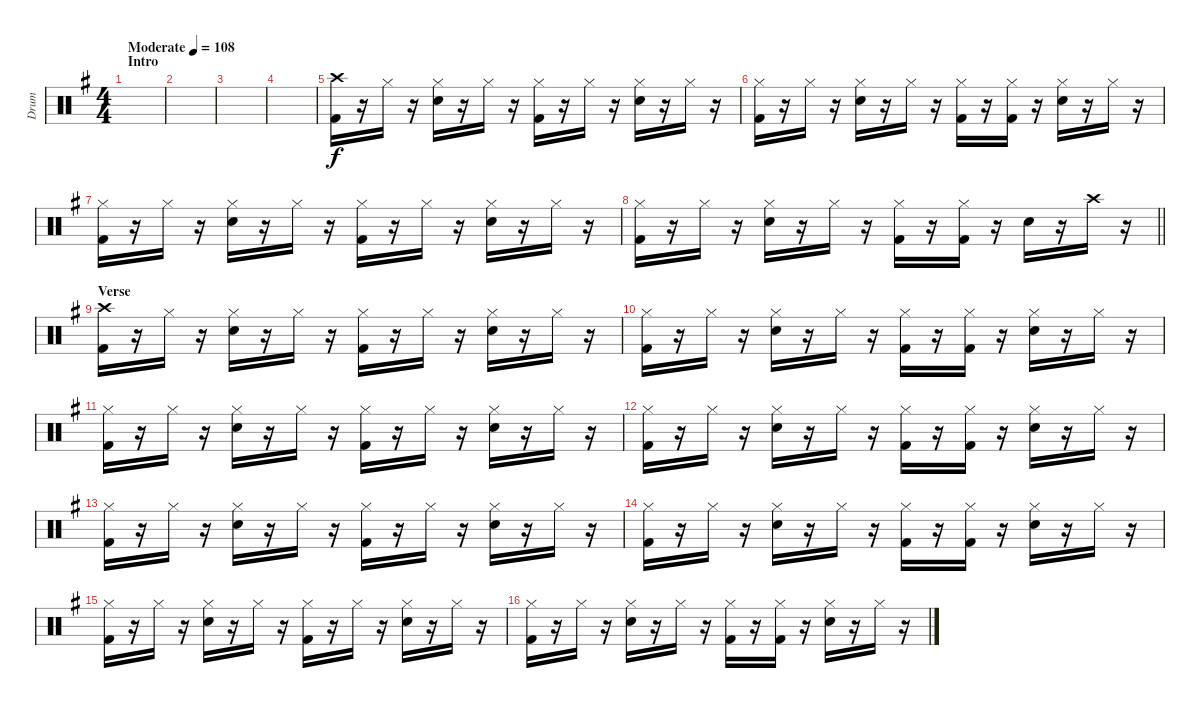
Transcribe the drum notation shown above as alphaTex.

\track ("Drum" "Drum") {instrument percussion}
\staff {score}
\articulation defaults
\ts (4 4)
\section ("" "Intro")
\tempo (108 "Moderate")
\clef neutral
\ks g
|
|
|
|
("Crash high (hit)" "Kick (hit) 2").16 r.16 "Hi-Hat (closed)".16 r.16 ("Hi-Hat (closed)" "Electric Snare (hit)").16 r.16 "Hi-Hat (closed)".16 r.16 ("Hi-Hat (closed)" "Kick (hit) 2").16 r.16 "Hi-Hat (closed)".16 r.16 ("Hi-Hat (closed)" "Electric Snare (hit)").16 r.16 "Hi-Hat (closed)".16 r.16 |
("Hi-Hat (closed)" "Kick (hit) 2").16 r.16 "Hi-Hat (closed)".16 r.16 ("Hi-Hat (closed)" "Electric Snare (hit)").16 r.16 "Hi-Hat (closed)".16 r.16 ("Hi-Hat (closed)" "Kick (hit) 2").16 r.16 ("Hi-Hat (closed)" "Kick (hit) 2").16 r.16 ("Hi-Hat (closed)" "Electric Snare (hit)").16 r.16 "Hi-Hat (closed)".16 r.16 |
("Hi-Hat (closed)" "Kick (hit) 2").16 r.16 "Hi-Hat (closed)".16 r.16 ("Hi-Hat (closed)" "Electric Snare (hit)").16 r.16 "Hi-Hat (closed)".16 r.16 ("Hi-Hat (closed)" "Kick (hit) 2").16 r.16 "Hi-Hat (closed)".16 r.16 ("Hi-Hat (closed)" "Electric Snare (hit)").16 r.16 "Hi-Hat (closed)".16 r.16 |
\barLineRight lightlight
("Hi-Hat (closed)" "Kick (hit) 2").16 r.16 "Hi-Hat (closed)".16 r.16 ("Hi-Hat (closed)" "Electric Snare (hit)").16 r.16 "Hi-Hat (closed)".16 r.16 ("Hi-Hat (closed)" "Kick (hit) 2").16 r.16 ("Hi-Hat (closed)" "Kick (hit) 2").16 r.16 "Electric Snare (hit)".16 r.16 "Crash high (hit)".16 r.16 |
\section ("" "Verse")
("Crash high (hit)" "Kick (hit) 2").16 r.16 "Hi-Hat (closed)".16 r.16 ("Hi-Hat (closed)" "Electric Snare (hit)").16 r.16 "Hi-Hat (closed)".16 r.16 ("Hi-Hat (closed)" "Kick (hit) 2").16 r.16 "Hi-Hat (closed)".16 r.16 ("Hi-Hat (closed)" "Electric Snare (hit)").16 r.16 "Hi-Hat (closed)".16 r.16 |
("Hi-Hat (closed)" "Kick (hit) 2").16 r.16 "Hi-Hat (closed)".16 r.16 ("Hi-Hat (closed)" "Electric Snare (hit)").16 r.16 "Hi-Hat (closed)".16 r.16 ("Hi-Hat (closed)" "Kick (hit) 2").16 r.16 ("Hi-Hat (closed)" "Kick (hit) 2").16 r.16 ("Hi-Hat (closed)" "Electric Snare (hit)").16 r.16 "Hi-Hat (closed)".16 r.16 |
("Hi-Hat (closed)" "Kick (hit) 2").16 r.16 "Hi-Hat (closed)".16 r.16 ("Hi-Hat (closed)" "Electric Snare (hit)").16 r.16 "Hi-Hat (closed)".16 r.16 ("Hi-Hat (closed)" "Kick (hit) 2").16 r.16 "Hi-Hat (closed)".16 r.16 ("Hi-Hat (closed)" "Electric Snare (hit)").16 r.16 "Hi-Hat (closed)".16 r.16 |
("Hi-Hat (closed)" "Kick (hit) 2").16 r.16 "Hi-Hat (closed)".16 r.16 ("Hi-Hat (closed)" "Electric Snare (hit)").16 r.16 "Hi-Hat (closed)".16 r.16 ("Hi-Hat (closed)" "Kick (hit) 2").16 r.16 ("Hi-Hat (closed)" "Kick (hit) 2").16 r.16 ("Hi-Hat (closed)" "Electric Snare (hit)").16 r.16 "Hi-Hat (closed)".16 r.16 |
("Hi-Hat (closed)" "Kick (hit) 2").16 r.16 "Hi-Hat (closed)".16 r.16 ("Hi-Hat (closed)" "Electric Snare (hit)").16 r.16 "Hi-Hat (closed)".16 r.16 ("Hi-Hat (closed)" "Kick (hit) 2").16 r.16 "Hi-Hat (closed)".16 r.16 ("Hi-Hat (closed)" "Electric Snare (hit)").16 r.16 "Hi-Hat (closed)".16 r.16 |
("Hi-Hat (closed)" "Kick (hit) 2").16 r.16 "Hi-Hat (closed)".16 r.16 ("Hi-Hat (closed)" "Electric Snare (hit)").16 r.16 "Hi-Hat (closed)".16 r.16 ("Hi-Hat (closed)" "Kick (hit) 2").16 r.16 ("Hi-Hat (closed)" "Kick (hit) 2").16 r.16 ("Hi-Hat (closed)" "Electric Snare (hit)").16 r.16 "Hi-Hat (closed)".16 r.16 |
("Hi-Hat (closed)" "Kick (hit) 2").16 r.16 "Hi-Hat (closed)".16 r.16 ("Hi-Hat (closed)" "Electric Snare (hit)").16 r.16 "Hi-Hat (closed)".16 r.16 ("Hi-Hat (closed)" "Kick (hit) 2").16 r.16 "Hi-Hat (closed)".16 r.16 ("Hi-Hat (closed)" "Electric Snare (hit)").16 r.16 "Hi-Hat (closed)".16 r.16 |
("Hi-Hat (closed)" "Kick (hit) 2").16 r.16 "Hi-Hat (closed)".16 r.16 ("Hi-Hat (closed)" "Electric Snare (hit)").16 r.16 "Hi-Hat (closed)".16 r.16 ("Hi-Hat (closed)" "Kick (hit) 2").16 r.16 ("Hi-Hat (closed)" "Kick (hit) 2").16 r.16 ("Hi-Hat (closed)" "Electric Snare (hit)").16 r.16 "Hi-Hat (closed)".16 r.16
